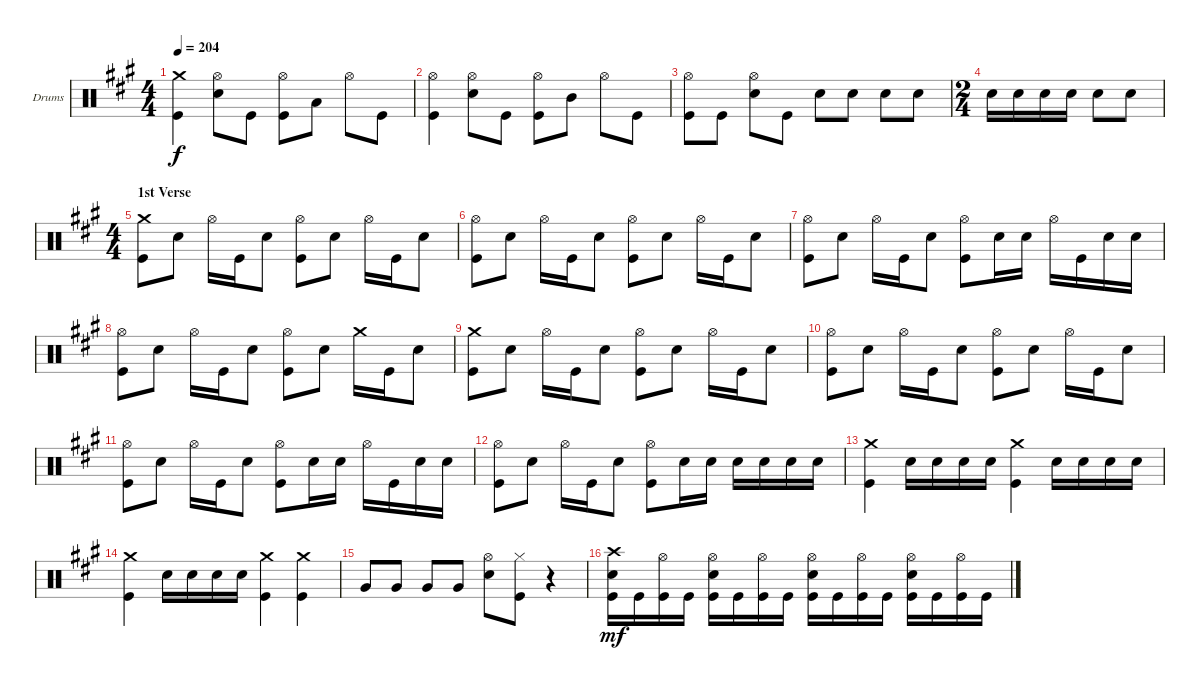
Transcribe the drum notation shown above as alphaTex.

\bracketExtendMode groupsimilarinstruments
\firstSystemTrackNameOrientation horizontal
\otherSystemsTrackNameOrientation horizontal
\track ("Drumkit" "Drums") {instrument percussion}
\staff {score}
\articulation defaults
\ts (4 4)
\tempo 204
\clef neutral
\ks a
("Crash medium (hit)" "Kick (hit)").4{dy f} ("Hi-Hat (open)" "Snare (hit) 2").8 "Kick (hit)".8 ("Hi-Hat (open)" "Kick (hit)").8 "Low Tom (hit)".8 "Hi-Hat (open)".8 "Kick (hit)".8 |
("Hi-Hat (open)" "Kick (hit)").4 ("Hi-Hat (open)" "Snare (hit) 2").8 "Kick (hit)".8 ("Hi-Hat (open)" "Kick (hit)").8 "Mid Tom (hit)".8 "Hi-Hat (open)".8 "Kick (hit)".8 |
("Hi-Hat (open)" "Kick (hit)").8 "Kick (hit)".8 ("Hi-Hat (open)" "Snare (hit) 2").8 "Kick (hit)".8 "Snare (hit) 2".8 "Snare (hit) 2".8 "Snare (hit) 2".8 "Snare (hit) 2".8 |
\ts (2 4)
"Snare (hit) 2".16 "Snare (hit) 2".16 "Snare (hit) 2".16 "Snare (hit) 2".16 "Snare (hit) 2".8 "Snare (hit) 2".8 |
\ts (4 4)
\section ("" "1st Verse")
("Crash medium (hit)" "Kick (hit)").8 "Snare (hit) 2".8 "Hi-Hat (open)".16 "Kick (hit)".16 "Snare (hit) 2".8 ("Hi-Hat (open)" "Kick (hit)").8 "Snare (hit) 2".8 "Hi-Hat (open)".16 "Kick (hit)".16 "Snare (hit) 2".8 |
("Hi-Hat (open)" "Kick (hit)").8 "Snare (hit) 2".8 "Hi-Hat (open)".16 "Kick (hit)".16 "Snare (hit) 2".8 ("Hi-Hat (open)" "Kick (hit)").8 "Snare (hit) 2".8 "Hi-Hat (open)".16 "Kick (hit)".16 "Snare (hit) 2".8 |
("Hi-Hat (open)" "Kick (hit)").8 "Snare (hit) 2".8 "Hi-Hat (open)".16 "Kick (hit)".16 "Snare (hit) 2".8 ("Hi-Hat (open)" "Kick (hit)").8 "Snare (hit) 2".16 "Snare (hit) 2".16 "Hi-Hat (open)".16 "Kick (hit)".16 "Snare (hit) 2".16 "Snare (hit) 2".16 |
("Hi-Hat (open)" "Kick (hit)").8 "Snare (hit) 2".8 "Hi-Hat (open)".16 "Kick (hit)".16 "Snare (hit) 2".8 ("Hi-Hat (open)" "Kick (hit)").8 "Snare (hit) 2".8 "Crash medium (hit)".16 "Kick (hit)".16 "Snare (hit) 2".8 |
("Crash medium (hit)" "Kick (hit)").8 "Snare (hit) 2".8 "Hi-Hat (open)".16 "Kick (hit)".16 "Snare (hit) 2".8 ("Hi-Hat (open)" "Kick (hit)").8 "Snare (hit) 2".8 "Hi-Hat (open)".16 "Kick (hit)".16 "Snare (hit) 2".8 |
("Hi-Hat (open)" "Kick (hit)").8 "Snare (hit) 2".8 "Hi-Hat (open)".16 "Kick (hit)".16 "Snare (hit) 2".8 ("Hi-Hat (open)" "Kick (hit)").8 "Snare (hit) 2".8 "Hi-Hat (open)".16 "Kick (hit)".16 "Snare (hit) 2".8 |
("Hi-Hat (open)" "Kick (hit)").8 "Snare (hit) 2".8 "Hi-Hat (open)".16 "Kick (hit)".16 "Snare (hit) 2".8 ("Hi-Hat (open)" "Kick (hit)").8 "Snare (hit) 2".16 "Snare (hit) 2".16 "Hi-Hat (open)".16 "Kick (hit)".16 "Snare (hit) 2".16 "Snare (hit) 2".16 |
("Hi-Hat (open)" "Kick (hit)").8 "Snare (hit) 2".8 "Hi-Hat (open)".16 "Kick (hit)".16 "Snare (hit) 2".8 ("Hi-Hat (open)" "Kick (hit)").8 "Snare (hit) 2".16 "Snare (hit) 2".16 "Snare (hit) 2".16 "Snare (hit) 2".16 "Snare (hit) 2".16 "Snare (hit) 2".16 |
("Crash medium (hit)" "Kick (hit)").4 "Snare (hit) 2".16 "Snare (hit) 2".16 "Snare (hit) 2".16 "Snare (hit) 2".16 ("Crash medium (hit)" "Kick (hit)").4 "Snare (hit) 2".16 "Snare (hit) 2".16 "Snare (hit) 2".16 "Snare (hit) 2".16 |
("Crash medium (hit)" "Kick (hit)").4 "Snare (hit) 2".16 "Snare (hit) 2".16 "Snare (hit) 2".16 "Snare (hit) 2".16 ("Crash medium (hit)" "Kick (hit)").4 ("Crash medium (hit)" "Kick (hit)").4 |
"Very Low Tom (hit)".8 "Very Low Tom (hit)".8 "Very Low Tom (hit)".8 "Very Low Tom (hit)".8 ("Hi-Hat (open)" "Snare (hit) 2").8 ("Hi-Hat (closed)" "Kick (hit)").8 r.4 |
("Kick (hit)" "Snare (hit) 2" "Crash high (hit)").16{dy mf} "Kick (hit)".16 ("Kick (hit)" "Hi-Hat (open)").16 "Kick (hit)".16 ("Kick (hit)" "Snare (hit) 2" "Hi-Hat (open)").16 "Kick (hit)".16 ("Kick (hit)" "Hi-Hat (open)").16 "Kick (hit)".16 ("Kick (hit)" "Snare (hit) 2" "Hi-Hat (open)").16 "Kick (hit)".16 ("Kick (hit)" "Hi-Hat (open)").16 "Kick (hit)".16 ("Kick (hit)" "Snare (hit) 2" "Hi-Hat (open)").16 "Kick (hit)".16 ("Kick (hit)" "Hi-Hat (open)").16 "Kick (hit)".16
